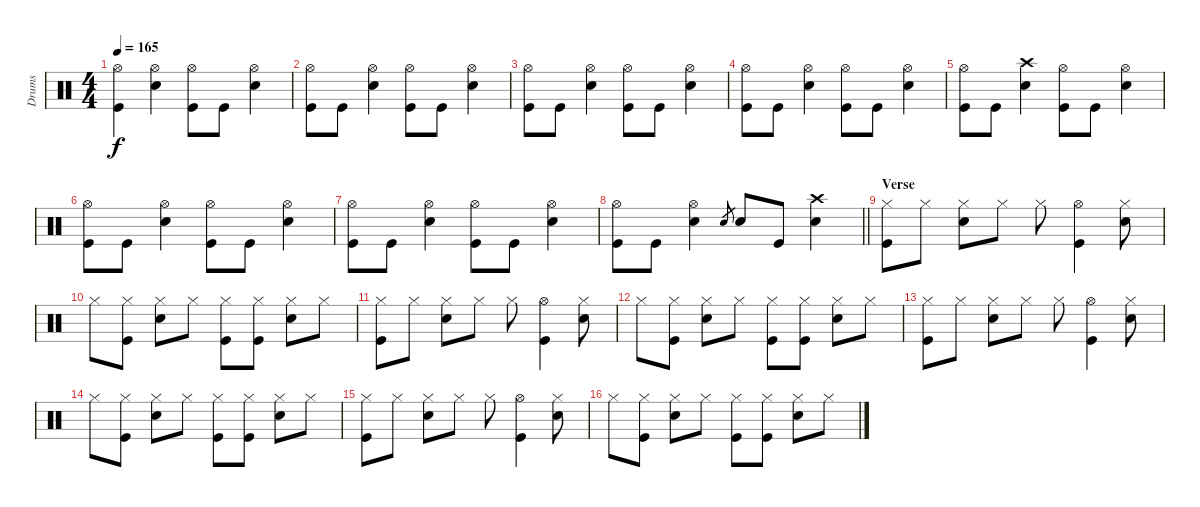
\track ("Drums" "Drums") {instrument percussion}
\staff {score}
\articulation defaults
\ts (4 4)
\tempo 165
\clef neutral
\ks c
("Hi-Hat (open)" "Kick (hit)").4{dy f} ("Hi-Hat (open)" "Snare (hit) 2").4 ("Hi-Hat (open)" "Kick (hit)").8 "Kick (hit)".8 ("Hi-Hat (open)" "Snare (hit) 2").4 |
("Hi-Hat (open)" "Kick (hit)").8 "Kick (hit)".8 ("Hi-Hat (open)" "Snare (hit) 2").4 ("Hi-Hat (open)" "Kick (hit)").8 "Kick (hit)".8 ("Hi-Hat (open)" "Snare (hit) 2").4 |
("Hi-Hat (open)" "Kick (hit)").8 "Kick (hit)".8 ("Hi-Hat (open)" "Snare (hit) 2").4 ("Hi-Hat (open)" "Kick (hit)").8 "Kick (hit)".8 ("Hi-Hat (open)" "Snare (hit) 2").4 |
("Hi-Hat (open)" "Kick (hit)").8 "Kick (hit)".8 ("Hi-Hat (open)" "Snare (hit) 2").4 ("Hi-Hat (open)" "Kick (hit)").8 "Kick (hit)".8 ("Hi-Hat (open)" "Snare (hit) 2").4 |
("Hi-Hat (open)" "Kick (hit)").8 "Kick (hit)".8 ("Crash high (hit)" "Snare (hit) 2").4 ("Hi-Hat (open)" "Kick (hit)").8 "Kick (hit)".8 ("Hi-Hat (open)" "Snare (hit) 2").4 |
("Hi-Hat (open)" "Kick (hit)").8 "Kick (hit)".8 ("Hi-Hat (open)" "Snare (hit) 2").4 ("Hi-Hat (open)" "Kick (hit)").8 "Kick (hit)".8 ("Hi-Hat (open)" "Snare (hit) 2").4 |
("Hi-Hat (open)" "Kick (hit)").8 "Kick (hit)".8 ("Hi-Hat (open)" "Snare (hit) 2").4 ("Hi-Hat (open)" "Kick (hit)").8 "Kick (hit)".8 ("Hi-Hat (open)" "Snare (hit) 2").4 |
\barLineRight lightlight
("Hi-Hat (open)" "Kick (hit)").8 "Kick (hit)".8 ("Hi-Hat (open)" "Snare (hit) 2").4 "Snare (hit) 2".8{gr} "Snare (hit) 2".8 "Kick (hit)".8 ("Crash high (hit)" "Snare (hit) 2").4 |
\section ("" "Verse")
("Hi-Hat (closed)" "Kick (hit)").8 "Hi-Hat (closed)".8 ("Hi-Hat (closed)" "Snare (hit) 2").8 "Hi-Hat (closed)".8 "Hi-Hat (closed)".8 ("Hi-Hat (open)" "Kick (hit)").4 ("Hi-Hat (closed)" "Snare (hit) 2").8 |
"Hi-Hat (closed)".8 ("Hi-Hat (closed)" "Kick (hit)").8 ("Hi-Hat (closed)" "Snare (hit) 2").8 "Hi-Hat (closed)".8 ("Hi-Hat (closed)" "Kick (hit)").8 ("Hi-Hat (closed)" "Kick (hit)").8 ("Hi-Hat (closed)" "Snare (hit) 2").8 "Hi-Hat (closed)".8 |
("Hi-Hat (closed)" "Kick (hit)").8 "Hi-Hat (closed)".8 ("Hi-Hat (closed)" "Snare (hit) 2").8 "Hi-Hat (closed)".8 "Hi-Hat (closed)".8 ("Hi-Hat (open)" "Kick (hit)").4 ("Hi-Hat (closed)" "Snare (hit) 2").8 |
"Hi-Hat (closed)".8 ("Hi-Hat (closed)" "Kick (hit)").8 ("Hi-Hat (closed)" "Snare (hit) 2").8 "Hi-Hat (closed)".8 ("Hi-Hat (closed)" "Kick (hit)").8 ("Hi-Hat (closed)" "Kick (hit)").8 ("Hi-Hat (closed)" "Snare (hit) 2").8 "Hi-Hat (closed)".8 |
("Hi-Hat (closed)" "Kick (hit)").8 "Hi-Hat (closed)".8 ("Hi-Hat (closed)" "Snare (hit) 2").8 "Hi-Hat (closed)".8 "Hi-Hat (closed)".8 ("Hi-Hat (open)" "Kick (hit)").4 ("Hi-Hat (closed)" "Snare (hit) 2").8 |
"Hi-Hat (closed)".8 ("Hi-Hat (closed)" "Kick (hit)").8 ("Hi-Hat (closed)" "Snare (hit) 2").8 "Hi-Hat (closed)".8 ("Hi-Hat (closed)" "Kick (hit)").8 ("Hi-Hat (closed)" "Kick (hit)").8 ("Hi-Hat (closed)" "Snare (hit) 2").8 "Hi-Hat (closed)".8 |
("Hi-Hat (closed)" "Kick (hit)").8 "Hi-Hat (closed)".8 ("Hi-Hat (closed)" "Snare (hit) 2").8 "Hi-Hat (closed)".8 "Hi-Hat (closed)".8 ("Hi-Hat (open)" "Kick (hit)").4 ("Hi-Hat (closed)" "Snare (hit) 2").8 |
"Hi-Hat (closed)".8 ("Hi-Hat (closed)" "Kick (hit)").8 ("Hi-Hat (closed)" "Snare (hit) 2").8 "Hi-Hat (closed)".8 ("Hi-Hat (closed)" "Kick (hit)").8 ("Hi-Hat (closed)" "Kick (hit)").8 ("Hi-Hat (closed)" "Snare (hit) 2").8 "Hi-Hat (closed)".8
